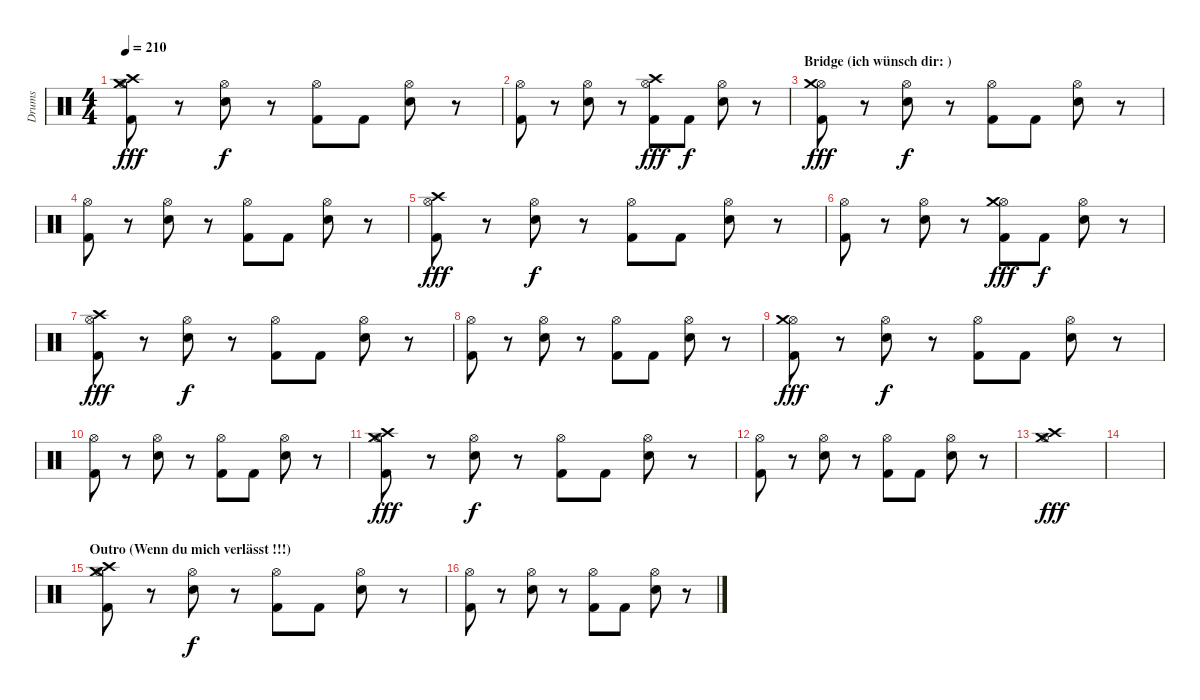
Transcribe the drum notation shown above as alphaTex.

\track ("Drums" "Drums") {instrument percussion}
\staff {score}
\articulation defaults
\ts (4 4)
\tempo 210
\clef neutral
\ks c
("Hi-Hat (open)" "Crash medium (hit)" "Crash high (hit)" "Kick (hit) 2").8{dy fff} r.8 ("Hi-Hat (open)" "Electric Snare (hit)").8{dy f} r.8 ("Hi-Hat (open)" "Kick (hit) 2").8 "Kick (hit) 2".8 ("Hi-Hat (open)" "Electric Snare (hit)").8 r.8 |
("Hi-Hat (open)" "Kick (hit) 2").8 r.8 ("Hi-Hat (open)" "Electric Snare (hit)").8 r.8 ("Hi-Hat (open)" "Crash high (hit)" "Kick (hit) 2").8{dy fff} "Kick (hit) 2".8{dy f} ("Hi-Hat (open)" "Electric Snare (hit)").8 r.8 |
\section ("" "Bridge (ich wünsch dir: )")
("Hi-Hat (open)" "Crash medium (hit)" "Kick (hit) 2").8{dy fff} r.8 ("Hi-Hat (open)" "Electric Snare (hit)").8{dy f} r.8 ("Hi-Hat (open)" "Kick (hit) 2").8 "Kick (hit) 2".8 ("Hi-Hat (open)" "Electric Snare (hit)").8 r.8 |
("Hi-Hat (open)" "Kick (hit) 2").8 r.8 ("Hi-Hat (open)" "Electric Snare (hit)").8 r.8 ("Hi-Hat (open)" "Kick (hit) 2").8 "Kick (hit) 2".8 ("Hi-Hat (open)" "Electric Snare (hit)").8 r.8 |
("Hi-Hat (open)" "Crash high (hit)" "Kick (hit) 2").8{dy fff} r.8 ("Hi-Hat (open)" "Electric Snare (hit)").8{dy f} r.8 ("Hi-Hat (open)" "Kick (hit) 2").8 "Kick (hit) 2".8 ("Hi-Hat (open)" "Electric Snare (hit)").8 r.8 |
("Hi-Hat (open)" "Kick (hit) 2").8 r.8 ("Hi-Hat (open)" "Electric Snare (hit)").8 r.8 ("Hi-Hat (open)" "Crash medium (hit)" "Kick (hit) 2").8{dy fff} "Kick (hit) 2".8{dy f} ("Hi-Hat (open)" "Electric Snare (hit)").8 r.8 |
("Hi-Hat (open)" "Crash high (hit)" "Kick (hit) 2").8{dy fff} r.8 ("Hi-Hat (open)" "Electric Snare (hit)").8{dy f} r.8 ("Hi-Hat (open)" "Kick (hit) 2").8 "Kick (hit) 2".8 ("Hi-Hat (open)" "Electric Snare (hit)").8 r.8 |
("Hi-Hat (open)" "Kick (hit) 2").8 r.8 ("Hi-Hat (open)" "Electric Snare (hit)").8 r.8 ("Hi-Hat (open)" "Kick (hit) 2").8 "Kick (hit) 2".8 ("Hi-Hat (open)" "Electric Snare (hit)").8 r.8 |
("Hi-Hat (open)" "Crash medium (hit)" "Kick (hit) 2").8{dy fff} r.8 ("Hi-Hat (open)" "Electric Snare (hit)").8{dy f} r.8 ("Hi-Hat (open)" "Kick (hit) 2").8 "Kick (hit) 2".8 ("Hi-Hat (open)" "Electric Snare (hit)").8 r.8 |
("Hi-Hat (open)" "Kick (hit) 2").8 r.8 ("Hi-Hat (open)" "Electric Snare (hit)").8 r.8 ("Hi-Hat (open)" "Kick (hit) 2").8 "Kick (hit) 2".8 ("Hi-Hat (open)" "Electric Snare (hit)").8 r.8 |
("Hi-Hat (open)" "Crash high (hit)" "Crash medium (hit)" "Kick (hit) 2").8{dy fff} r.8 ("Hi-Hat (open)" "Electric Snare (hit)").8{dy f} r.8 ("Hi-Hat (open)" "Kick (hit) 2").8 "Kick (hit) 2".8 ("Hi-Hat (open)" "Electric Snare (hit)").8 r.8 |
("Hi-Hat (open)" "Kick (hit) 2").8 r.8 ("Hi-Hat (open)" "Electric Snare (hit)").8 r.8 ("Hi-Hat (open)" "Kick (hit) 2").8 "Kick (hit) 2".8 ("Hi-Hat (open)" "Electric Snare (hit)").8 r.8 |
("Hi-Hat (open)" "Crash medium (hit)" "Crash high (hit)").1{dy fff} |
|
\section ("" "Outro (Wenn du mich verlässt !!!)")
("Hi-Hat (open)" "Crash high (hit)" "Crash medium (hit)" "Kick (hit) 2").8 r.8 ("Hi-Hat (open)" "Electric Snare (hit)").8{dy f} r.8 ("Hi-Hat (open)" "Kick (hit) 2").8 "Kick (hit) 2".8 ("Hi-Hat (open)" "Electric Snare (hit)").8 r.8 |
("Hi-Hat (open)" "Kick (hit) 2").8 r.8 ("Hi-Hat (open)" "Electric Snare (hit)").8 r.8 ("Hi-Hat (open)" "Kick (hit) 2").8 "Kick (hit) 2".8 ("Hi-Hat (open)" "Electric Snare (hit)").8 r.8
